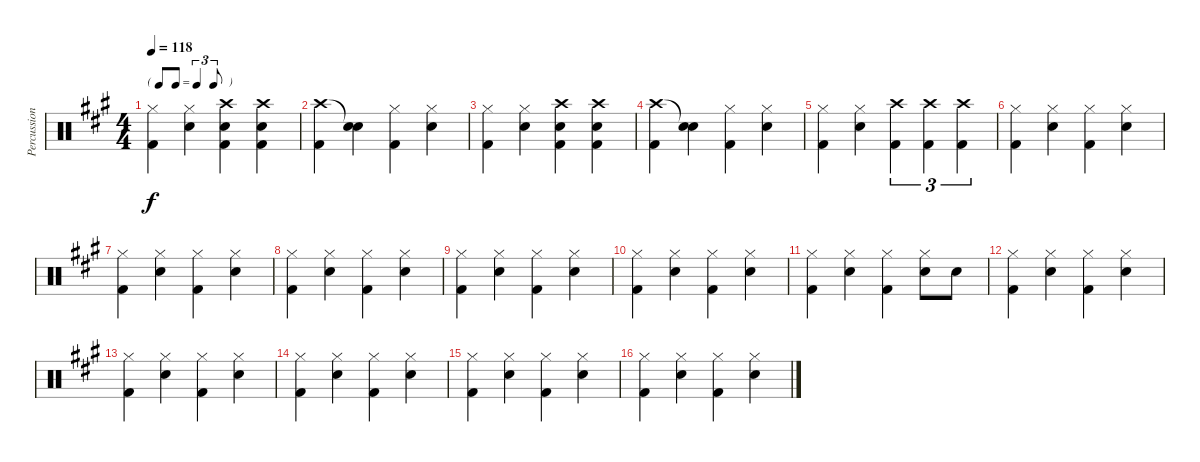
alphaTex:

\track ("Percussion" "Percussion") {instrument percussion}
\staff {score}
\articulation defaults
\ts (4 4)
\tf triplet8th
\tempo 118
\clef neutral
\ks a
("Hi-Hat (closed)" "Kick (hit) 2").4{dy f} ("Hi-Hat (closed)" "Snare (hit) 2").4 ("Crash high (hit)" "Snare (hit) 2" "Kick (hit) 2").4 ("Crash high (hit)" "Snare (hit) 2" "Kick (hit) 2").4 |
("Crash high (hit)" "Kick (hit) 2").4 ("Snare (hit)"{t} "Snare (hit) 2").4 ("Hi-Hat (closed)" "Kick (hit) 2").4 ("Hi-Hat (closed)" "Snare (hit) 2").4 |
("Hi-Hat (closed)" "Kick (hit) 2").4 ("Hi-Hat (closed)" "Snare (hit) 2").4 ("Crash high (hit)" "Snare (hit) 2" "Kick (hit) 2").4 ("Crash high (hit)" "Snare (hit) 2" "Kick (hit) 2").4 |
("Crash high (hit)" "Kick (hit) 2").4 ("Snare (hit)"{t} "Snare (hit) 2").4 ("Hi-Hat (closed)" "Kick (hit) 2").4 ("Hi-Hat (closed)" "Snare (hit) 2").4 |
("Hi-Hat (closed)" "Kick (hit) 2").4 ("Hi-Hat (closed)" "Snare (hit) 2").4 ("Crash high (hit)" "Kick (hit) 2").4{tu (3 2)} ("Crash high (hit)" "Kick (hit) 2").4{tu (3 2)} ("Crash high (hit)" "Kick (hit) 2").4{tu (3 2)} |
("Hi-Hat (closed)" "Kick (hit) 2").4 ("Hi-Hat (closed)" "Snare (hit) 2").4 ("Hi-Hat (closed)" "Kick (hit) 2").4 ("Hi-Hat (closed)" "Snare (hit) 2").4 |
("Hi-Hat (closed)" "Kick (hit) 2").4 ("Hi-Hat (closed)" "Snare (hit) 2").4 ("Hi-Hat (closed)" "Kick (hit) 2").4 ("Hi-Hat (closed)" "Snare (hit) 2").4 |
("Hi-Hat (closed)" "Kick (hit) 2").4 ("Hi-Hat (closed)" "Snare (hit) 2").4 ("Hi-Hat (closed)" "Kick (hit) 2").4 ("Hi-Hat (closed)" "Snare (hit) 2").4 |
("Hi-Hat (closed)" "Kick (hit) 2").4 ("Hi-Hat (closed)" "Snare (hit) 2").4 ("Hi-Hat (closed)" "Kick (hit) 2").4 ("Hi-Hat (closed)" "Snare (hit) 2").4 |
("Hi-Hat (closed)" "Kick (hit) 2").4 ("Hi-Hat (closed)" "Snare (hit) 2").4 ("Hi-Hat (closed)" "Kick (hit) 2").4 ("Hi-Hat (closed)" "Snare (hit) 2").4 |
("Hi-Hat (closed)" "Kick (hit) 2").4 ("Hi-Hat (closed)" "Snare (hit) 2").4 ("Hi-Hat (closed)" "Kick (hit) 2").4 ("Hi-Hat (closed)" "Snare (hit) 2").8 "Snare (hit) 2".8 |
("Hi-Hat (closed)" "Kick (hit) 2").4 ("Hi-Hat (closed)" "Snare (hit) 2").4 ("Hi-Hat (closed)" "Kick (hit) 2").4 ("Hi-Hat (closed)" "Snare (hit) 2").4 |
("Hi-Hat (closed)" "Kick (hit) 2").4 ("Hi-Hat (closed)" "Snare (hit) 2").4 ("Hi-Hat (closed)" "Kick (hit) 2").4 ("Hi-Hat (closed)" "Snare (hit) 2").4 |
("Hi-Hat (closed)" "Kick (hit) 2").4 ("Hi-Hat (closed)" "Snare (hit) 2").4 ("Hi-Hat (closed)" "Kick (hit) 2").4 ("Hi-Hat (closed)" "Snare (hit) 2").4 |
("Hi-Hat (closed)" "Kick (hit) 2").4 ("Hi-Hat (closed)" "Snare (hit) 2").4 ("Hi-Hat (closed)" "Kick (hit) 2").4 ("Hi-Hat (closed)" "Snare (hit) 2").4 |
("Hi-Hat (closed)" "Kick (hit) 2").4 ("Hi-Hat (closed)" "Snare (hit) 2").4 ("Hi-Hat (closed)" "Kick (hit) 2").4 ("Hi-Hat (closed)" "Snare (hit) 2").4
